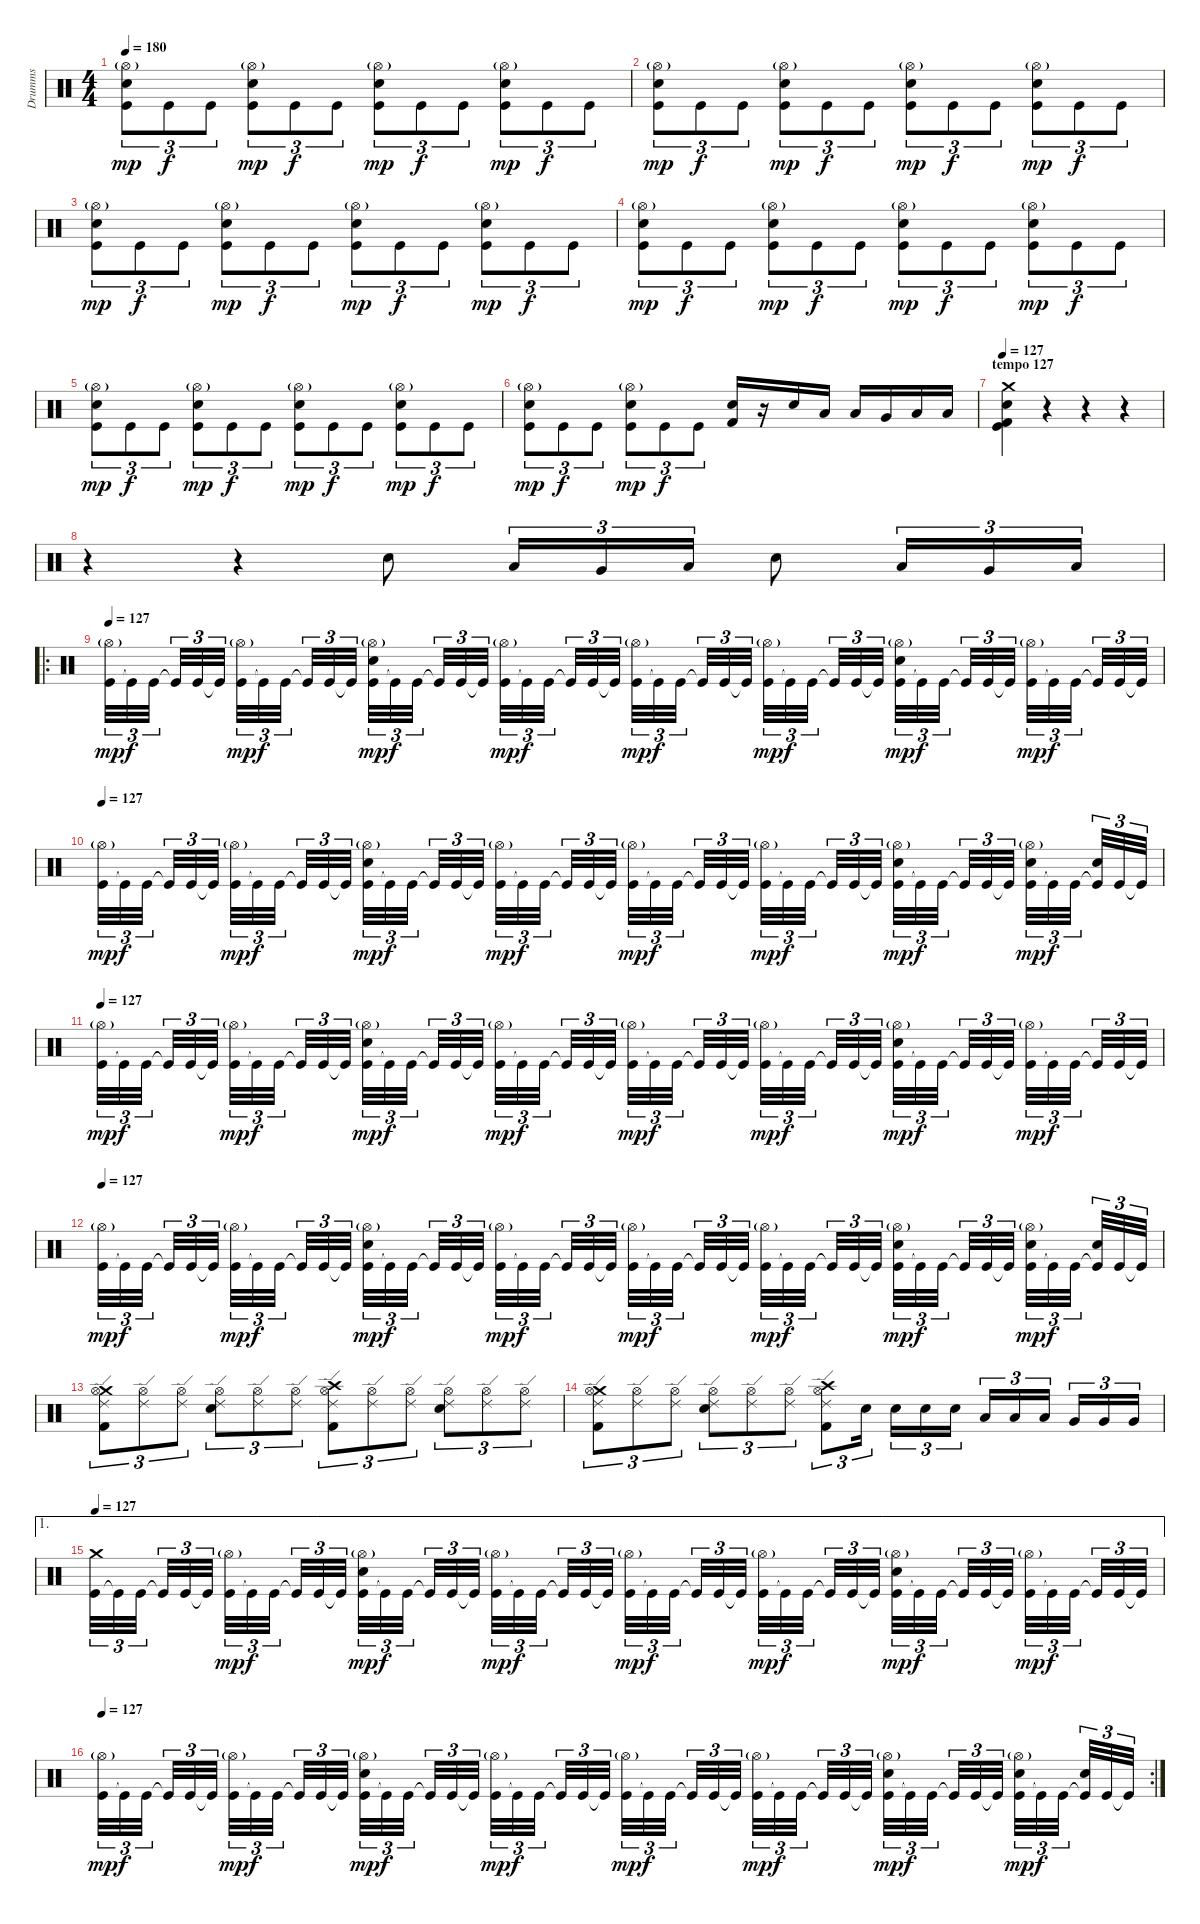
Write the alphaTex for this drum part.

\track ("Drumms" "Drumms") {instrument percussion}
\staff {score}
\articulation defaults
\ts (4 4)
\tempo 180
\clef neutral
\ks c
("Kick (hit)" "Snare (hit) 2" "Hi-Hat (open)"{g}).8{tu (3 2) dy mp} "Kick (hit)".8{tu (3 2) dy f} "Kick (hit)".8{tu (3 2)} ("Kick (hit)" "Snare (hit) 2" "Hi-Hat (open)"{g}).8{tu (3 2) dy mp} "Kick (hit)".8{tu (3 2) dy f} "Kick (hit)".8{tu (3 2)} ("Kick (hit)" "Snare (hit) 2" "Hi-Hat (open)"{g}).8{tu (3 2) dy mp} "Kick (hit)".8{tu (3 2) dy f} "Kick (hit)".8{tu (3 2)} ("Kick (hit)" "Snare (hit) 2" "Hi-Hat (open)"{g}).8{tu (3 2) dy mp} "Kick (hit)".8{tu (3 2) dy f} "Kick (hit)".8{tu (3 2)} |
("Kick (hit)" "Snare (hit) 2" "Hi-Hat (open)"{g}).8{tu (3 2) dy mp} "Kick (hit)".8{tu (3 2) dy f} "Kick (hit)".8{tu (3 2)} ("Kick (hit)" "Snare (hit) 2" "Hi-Hat (open)"{g}).8{tu (3 2) dy mp} "Kick (hit)".8{tu (3 2) dy f} "Kick (hit)".8{tu (3 2)} ("Kick (hit)" "Snare (hit) 2" "Hi-Hat (open)"{g}).8{tu (3 2) dy mp} "Kick (hit)".8{tu (3 2) dy f} "Kick (hit)".8{tu (3 2)} ("Kick (hit)" "Snare (hit) 2" "Hi-Hat (open)"{g}).8{tu (3 2) dy mp} "Kick (hit)".8{tu (3 2) dy f} "Kick (hit)".8{tu (3 2)} |
("Kick (hit)" "Snare (hit) 2" "Hi-Hat (open)"{g}).8{tu (3 2) dy mp} "Kick (hit)".8{tu (3 2) dy f} "Kick (hit)".8{tu (3 2)} ("Kick (hit)" "Snare (hit) 2" "Hi-Hat (open)"{g}).8{tu (3 2) dy mp} "Kick (hit)".8{tu (3 2) dy f} "Kick (hit)".8{tu (3 2)} ("Kick (hit)" "Snare (hit) 2" "Hi-Hat (open)"{g}).8{tu (3 2) dy mp} "Kick (hit)".8{tu (3 2) dy f} "Kick (hit)".8{tu (3 2)} ("Kick (hit)" "Snare (hit) 2" "Hi-Hat (open)"{g}).8{tu (3 2) dy mp} "Kick (hit)".8{tu (3 2) dy f} "Kick (hit)".8{tu (3 2)} |
("Kick (hit)" "Snare (hit) 2" "Hi-Hat (open)"{g}).8{tu (3 2) dy mp} "Kick (hit)".8{tu (3 2) dy f} "Kick (hit)".8{tu (3 2)} ("Kick (hit)" "Snare (hit) 2" "Hi-Hat (open)"{g}).8{tu (3 2) dy mp} "Kick (hit)".8{tu (3 2) dy f} "Kick (hit)".8{tu (3 2)} ("Kick (hit)" "Snare (hit) 2" "Hi-Hat (open)"{g}).8{tu (3 2) dy mp} "Kick (hit)".8{tu (3 2) dy f} "Kick (hit)".8{tu (3 2)} ("Kick (hit)" "Snare (hit) 2" "Hi-Hat (open)"{g}).8{tu (3 2) dy mp} "Kick (hit)".8{tu (3 2) dy f} "Kick (hit)".8{tu (3 2)} |
("Kick (hit)" "Snare (hit) 2" "Hi-Hat (open)"{g}).8{tu (3 2) dy mp} "Kick (hit)".8{tu (3 2) dy f} "Kick (hit)".8{tu (3 2)} ("Kick (hit)" "Snare (hit) 2" "Hi-Hat (open)"{g}).8{tu (3 2) dy mp} "Kick (hit)".8{tu (3 2) dy f} "Kick (hit)".8{tu (3 2)} ("Kick (hit)" "Snare (hit) 2" "Hi-Hat (open)"{g}).8{tu (3 2) dy mp} "Kick (hit)".8{tu (3 2) dy f} "Kick (hit)".8{tu (3 2)} ("Kick (hit)" "Snare (hit) 2" "Hi-Hat (open)"{g}).8{tu (3 2) dy mp} "Kick (hit)".8{tu (3 2) dy f} "Kick (hit)".8{tu (3 2)} |
("Kick (hit)" "Snare (hit) 2" "Hi-Hat (open)"{g}).8{tu (3 2) dy mp} "Kick (hit)".8{tu (3 2) dy f} "Kick (hit)".8{tu (3 2)} ("Kick (hit)" "Snare (hit) 2" "Hi-Hat (open)"{g}).8{tu (3 2) dy mp} "Kick (hit)".8{tu (3 2) dy f} "Kick (hit)".8{tu (3 2)} ("Snare (hit) 2" "Kick (hit) 2").16 r.16 "Snare (hit) 2".16 "Low Tom (hit)".16 "Low Tom (hit)".16 "Very Low Tom (hit)".16 "Low Floor Tom (hit)".16 "Low Floor Tom (hit)".16 |
\section ("" "tempo 127")
\tempo 127
("Kick (hit) 2" "Kick (hit)" "Crash medium (hit)" "Snare (hit) 2").4 r.4 r.4 r.4 |
r.4 r.4 "Snare (hit) 2".8 "Low Tom (hit)".16{tu (3 2)} "Very Low Tom (hit)".16{tu (3 2)} "Low Floor Tom (hit)".16{tu (3 2)} "Snare (hit) 2".8 "Low Tom (hit)".16{tu (3 2)} "Very Low Tom (hit)".16{tu (3 2)} "Low Floor Tom (hit)".16{tu (3 2)} |
\ro
\tempo 127
("Kick (hit)" "Hi-Hat (open)"{g}).32{tu (3 2) dy mp} "Kick (hit)"{t}.32{tu (3 2) dy f} "Kick (hit)".32{tu (3 2)} "Kick (hit)"{t}.32{tu (3 2)} "Kick (hit)".32{tu (3 2)} "Kick (hit)"{t}.32{tu (3 2)} ("Kick (hit)" "Hi-Hat (open)"{g}).32{tu (3 2) dy mp} "Kick (hit)"{t}.32{tu (3 2) dy f} "Kick (hit)".32{tu (3 2)} "Kick (hit)"{t}.32{tu (3 2)} "Kick (hit)".32{tu (3 2)} "Kick (hit)"{t}.32{tu (3 2)} ("Kick (hit)" "Snare (hit) 2" "Hi-Hat (open)"{g}).32{tu (3 2) dy mp} "Kick (hit)"{t}.32{tu (3 2) dy f} "Kick (hit)".32{tu (3 2)} "Kick (hit)"{t}.32{tu (3 2)} "Kick (hit)".32{tu (3 2)} "Kick (hit)"{t}.32{tu (3 2)} ("Kick (hit)" "Hi-Hat (open)"{g}).32{tu (3 2) dy mp} "Kick (hit)"{t}.32{tu (3 2) dy f} "Kick (hit)".32{tu (3 2)} "Kick (hit)"{t}.32{tu (3 2)} "Kick (hit)".32{tu (3 2)} "Kick (hit)"{t}.32{tu (3 2)} ("Kick (hit)" "Hi-Hat (open)"{g}).32{tu (3 2) dy mp} "Kick (hit)"{t}.32{tu (3 2) dy f} "Kick (hit)".32{tu (3 2)} "Kick (hit)"{t}.32{tu (3 2)} "Kick (hit)".32{tu (3 2)} "Kick (hit)"{t}.32{tu (3 2)} ("Kick (hit)" "Hi-Hat (open)"{g}).32{tu (3 2) dy mp} "Kick (hit)"{t}.32{tu (3 2) dy f} "Kick (hit)".32{tu (3 2)} "Kick (hit)"{t}.32{tu (3 2)} "Kick (hit)".32{tu (3 2)} "Kick (hit)"{t}.32{tu (3 2)} ("Kick (hit)" "Hi-Hat (open)"{g} "Snare (hit) 2").32{tu (3 2) dy mp} "Kick (hit)"{t}.32{tu (3 2) dy f} "Kick (hit)".32{tu (3 2)} "Kick (hit)"{t}.32{tu (3 2)} "Kick (hit)".32{tu (3 2)} "Kick (hit)"{t}.32{tu (3 2)} ("Kick (hit)" "Hi-Hat (open)"{g}).32{tu (3 2) dy mp} "Kick (hit)"{t}.32{tu (3 2) dy f} "Kick (hit)".32{tu (3 2)} "Kick (hit)"{t}.32{tu (3 2)} "Kick (hit)".32{tu (3 2)} "Kick (hit)"{t}.32{tu (3 2)} |
\tempo 127
("Kick (hit)" "Hi-Hat (open)"{g}).32{tu (3 2) dy mp} "Kick (hit)"{t}.32{tu (3 2) dy f} "Kick (hit)".32{tu (3 2)} "Kick (hit)"{t}.32{tu (3 2)} "Kick (hit)".32{tu (3 2)} "Kick (hit)"{t}.32{tu (3 2)} ("Kick (hit)" "Hi-Hat (open)"{g}).32{tu (3 2) dy mp} "Kick (hit)"{t}.32{tu (3 2) dy f} "Kick (hit)".32{tu (3 2)} "Kick (hit)"{t}.32{tu (3 2)} "Kick (hit)".32{tu (3 2)} "Kick (hit)"{t}.32{tu (3 2)} ("Kick (hit)" "Snare (hit) 2" "Hi-Hat (open)"{g}).32{tu (3 2) dy mp} "Kick (hit)"{t}.32{tu (3 2) dy f} "Kick (hit)".32{tu (3 2)} "Kick (hit)"{t}.32{tu (3 2)} "Kick (hit)".32{tu (3 2)} "Kick (hit)"{t}.32{tu (3 2)} ("Kick (hit)" "Hi-Hat (open)"{g}).32{tu (3 2) dy mp} "Kick (hit)"{t}.32{tu (3 2) dy f} "Kick (hit)".32{tu (3 2)} "Kick (hit)"{t}.32{tu (3 2)} "Kick (hit)".32{tu (3 2)} "Kick (hit)"{t}.32{tu (3 2)} ("Kick (hit)" "Hi-Hat (open)"{g}).32{tu (3 2) dy mp} "Kick (hit)"{t}.32{tu (3 2) dy f} "Kick (hit)".32{tu (3 2)} "Kick (hit)"{t}.32{tu (3 2)} "Kick (hit)".32{tu (3 2)} "Kick (hit)"{t}.32{tu (3 2)} ("Kick (hit)" "Hi-Hat (open)"{g}).32{tu (3 2) dy mp} "Kick (hit)"{t}.32{tu (3 2) dy f} "Kick (hit)".32{tu (3 2)} "Kick (hit)"{t}.32{tu (3 2)} "Kick (hit)".32{tu (3 2)} "Kick (hit)"{t}.32{tu (3 2)} ("Kick (hit)" "Hi-Hat (open)"{g} "Snare (hit) 2").32{tu (3 2) dy mp} "Kick (hit)"{t}.32{tu (3 2) dy f} "Kick (hit)".32{tu (3 2)} "Kick (hit)"{t}.32{tu (3 2)} "Kick (hit)".32{tu (3 2)} "Kick (hit)"{t}.32{tu (3 2)} ("Kick (hit)" "Hi-Hat (open)"{g} "Snare (hit) 2").32{tu (3 2) dy mp} "Kick (hit)"{t}.32{tu (3 2) dy f} "Kick (hit)".32{tu (3 2)} ("Kick (hit)"{t} "Snare (hit) 2").32{tu (3 2)} "Kick (hit)".32{tu (3 2)} "Kick (hit)"{t}.32{tu (3 2)} |
\tempo 127
("Kick (hit)" "Hi-Hat (open)"{g}).32{tu (3 2) dy mp} "Kick (hit)"{t}.32{tu (3 2) dy f} "Kick (hit)".32{tu (3 2)} "Kick (hit)"{t}.32{tu (3 2)} "Kick (hit)".32{tu (3 2)} "Kick (hit)"{t}.32{tu (3 2)} ("Kick (hit)" "Hi-Hat (open)"{g}).32{tu (3 2) dy mp} "Kick (hit)"{t}.32{tu (3 2) dy f} "Kick (hit)".32{tu (3 2)} "Kick (hit)"{t}.32{tu (3 2)} "Kick (hit)".32{tu (3 2)} "Kick (hit)"{t}.32{tu (3 2)} ("Kick (hit)" "Snare (hit) 2" "Hi-Hat (open)"{g}).32{tu (3 2) dy mp} "Kick (hit)"{t}.32{tu (3 2) dy f} "Kick (hit)".32{tu (3 2)} "Kick (hit)"{t}.32{tu (3 2)} "Kick (hit)".32{tu (3 2)} "Kick (hit)"{t}.32{tu (3 2)} ("Kick (hit)" "Hi-Hat (open)"{g}).32{tu (3 2) dy mp} "Kick (hit)"{t}.32{tu (3 2) dy f} "Kick (hit)".32{tu (3 2)} "Kick (hit)"{t}.32{tu (3 2)} "Kick (hit)".32{tu (3 2)} "Kick (hit)"{t}.32{tu (3 2)} ("Kick (hit)" "Hi-Hat (open)"{g}).32{tu (3 2) dy mp} "Kick (hit)"{t}.32{tu (3 2) dy f} "Kick (hit)".32{tu (3 2)} "Kick (hit)"{t}.32{tu (3 2)} "Kick (hit)".32{tu (3 2)} "Kick (hit)"{t}.32{tu (3 2)} ("Kick (hit)" "Hi-Hat (open)"{g}).32{tu (3 2) dy mp} "Kick (hit)"{t}.32{tu (3 2) dy f} "Kick (hit)".32{tu (3 2)} "Kick (hit)"{t}.32{tu (3 2)} "Kick (hit)".32{tu (3 2)} "Kick (hit)"{t}.32{tu (3 2)} ("Kick (hit)" "Hi-Hat (open)"{g} "Snare (hit) 2").32{tu (3 2) dy mp} "Kick (hit)"{t}.32{tu (3 2) dy f} "Kick (hit)".32{tu (3 2)} "Kick (hit)"{t}.32{tu (3 2)} "Kick (hit)".32{tu (3 2)} "Kick (hit)"{t}.32{tu (3 2)} ("Kick (hit)" "Hi-Hat (open)"{g}).32{tu (3 2) dy mp} "Kick (hit)"{t}.32{tu (3 2) dy f} "Kick (hit)".32{tu (3 2)} "Kick (hit)"{t}.32{tu (3 2)} "Kick (hit)".32{tu (3 2)} "Kick (hit)"{t}.32{tu (3 2)} |
\tempo 127
("Kick (hit)" "Hi-Hat (open)"{g}).32{tu (3 2) dy mp} "Kick (hit)"{t}.32{tu (3 2) dy f} "Kick (hit)".32{tu (3 2)} "Kick (hit)"{t}.32{tu (3 2)} "Kick (hit)".32{tu (3 2)} "Kick (hit)"{t}.32{tu (3 2)} ("Kick (hit)" "Hi-Hat (open)"{g}).32{tu (3 2) dy mp} "Kick (hit)"{t}.32{tu (3 2) dy f} "Kick (hit)".32{tu (3 2)} "Kick (hit)"{t}.32{tu (3 2)} "Kick (hit)".32{tu (3 2)} "Kick (hit)"{t}.32{tu (3 2)} ("Kick (hit)" "Snare (hit) 2" "Hi-Hat (open)"{g}).32{tu (3 2) dy mp} "Kick (hit)"{t}.32{tu (3 2) dy f} "Kick (hit)".32{tu (3 2)} "Kick (hit)"{t}.32{tu (3 2)} "Kick (hit)".32{tu (3 2)} "Kick (hit)"{t}.32{tu (3 2)} ("Kick (hit)" "Hi-Hat (open)"{g}).32{tu (3 2) dy mp} "Kick (hit)"{t}.32{tu (3 2) dy f} "Kick (hit)".32{tu (3 2)} "Kick (hit)"{t}.32{tu (3 2)} "Kick (hit)".32{tu (3 2)} "Kick (hit)"{t}.32{tu (3 2)} ("Kick (hit)" "Hi-Hat (open)"{g}).32{tu (3 2) dy mp} "Kick (hit)"{t}.32{tu (3 2) dy f} "Kick (hit)".32{tu (3 2)} "Kick (hit)"{t}.32{tu (3 2)} "Kick (hit)".32{tu (3 2)} "Kick (hit)"{t}.32{tu (3 2)} ("Kick (hit)" "Hi-Hat (open)"{g}).32{tu (3 2) dy mp} "Kick (hit)"{t}.32{tu (3 2) dy f} "Kick (hit)".32{tu (3 2)} "Kick (hit)"{t}.32{tu (3 2)} "Kick (hit)".32{tu (3 2)} "Kick (hit)"{t}.32{tu (3 2)} ("Kick (hit)" "Hi-Hat (open)"{g} "Snare (hit) 2").32{tu (3 2) dy mp} "Kick (hit)"{t}.32{tu (3 2) dy f} "Kick (hit)".32{tu (3 2)} "Kick (hit)"{t}.32{tu (3 2)} "Kick (hit)".32{tu (3 2)} "Kick (hit)"{t}.32{tu (3 2)} ("Kick (hit)" "Hi-Hat (open)"{g} "Snare (hit) 2").32{tu (3 2) dy mp} "Kick (hit)"{t}.32{tu (3 2) dy f} "Kick (hit)".32{tu (3 2)} ("Kick (hit)"{t} "Snare (hit) 2").32{tu (3 2)} "Kick (hit)".32{tu (3 2)} "Kick (hit)"{t}.32{tu (3 2)} |
("Kick (hit) 2" "Ride (edge) 2" "Crash medium (hit)" "Hi-Hat (open)").8{tu (3 2)} ("Ride (edge) 2" "Hi-Hat (open)").8{tu (3 2)} ("Ride (edge) 2" "Hi-Hat (open)").8{tu (3 2)} ("Snare (hit) 2" "Ride (edge) 2" "Hi-Hat (open)").8{tu (3 2)} ("Ride (edge) 2" "Hi-Hat (open)").8{tu (3 2)} ("Ride (edge) 2" "Hi-Hat (open)").8{tu (3 2)} ("Kick (hit) 2" "Ride (edge) 2" "Crash high (hit)" "Hi-Hat (open)").8{tu (3 2)} ("Ride (edge) 2" "Hi-Hat (open)").8{tu (3 2)} ("Ride (edge) 2" "Hi-Hat (open)").8{tu (3 2)} ("Snare (hit) 2" "Ride (edge) 2" "Hi-Hat (open)").8{tu (3 2)} ("Ride (edge) 2" "Hi-Hat (open)").8{tu (3 2)} ("Ride (edge) 2" "Hi-Hat (open)").8{tu (3 2)} |
("Kick (hit) 2" "Ride (edge) 2" "Crash medium (hit)" "Hi-Hat (open)").8{tu (3 2)} ("Ride (edge) 2" "Hi-Hat (open)").8{tu (3 2)} ("Ride (edge) 2" "Hi-Hat (open)").8{tu (3 2)} ("Snare (hit) 2" "Ride (edge) 2" "Hi-Hat (open)").8{tu (3 2)} ("Ride (edge) 2" "Hi-Hat (open)").8{tu (3 2)} ("Ride (edge) 2" "Hi-Hat (open)").8{tu (3 2)} ("Kick (hit) 2" "Ride (edge) 2" "Crash high (hit)" "Hi-Hat (open)").8{tu (3 2)} "Snare (hit) 2".16{tu (3 2)} "Snare (hit) 2".16{tu (3 2)} "Snare (hit) 2".16{tu (3 2)} "Snare (hit) 2".16{tu (3 2)} "Low Tom (hit)".16{tu (3 2)} "Low Tom (hit)".16{tu (3 2)} "Low Tom (hit)".16{tu (3 2)} "Very Low Tom (hit)".16{tu (3 2)} "Very Low Tom (hit)".16{tu (3 2)} "Very Low Tom (hit)".16{tu (3 2)} |
\ae 1
\tempo 127
("Kick (hit)" "Crash medium (hit)").32{tu (3 2)} "Kick (hit)"{t}.32{tu (3 2)} "Kick (hit)".32{tu (3 2)} "Kick (hit)"{t}.32{tu (3 2)} "Kick (hit)".32{tu (3 2)} "Kick (hit)"{t}.32{tu (3 2)} ("Kick (hit)" "Hi-Hat (open)"{g}).32{tu (3 2) dy mp} "Kick (hit)"{t}.32{tu (3 2) dy f} "Kick (hit)".32{tu (3 2)} "Kick (hit)"{t}.32{tu (3 2)} "Kick (hit)".32{tu (3 2)} "Kick (hit)"{t}.32{tu (3 2)} ("Kick (hit)" "Snare (hit) 2" "Hi-Hat (open)"{g}).32{tu (3 2) dy mp} "Kick (hit)"{t}.32{tu (3 2) dy f} "Kick (hit)".32{tu (3 2)} "Kick (hit)"{t}.32{tu (3 2)} "Kick (hit)".32{tu (3 2)} "Kick (hit)"{t}.32{tu (3 2)} ("Kick (hit)" "Hi-Hat (open)"{g}).32{tu (3 2) dy mp} "Kick (hit)"{t}.32{tu (3 2) dy f} "Kick (hit)".32{tu (3 2)} "Kick (hit)"{t}.32{tu (3 2)} "Kick (hit)".32{tu (3 2)} "Kick (hit)"{t}.32{tu (3 2)} ("Kick (hit)" "Hi-Hat (open)"{g}).32{tu (3 2) dy mp} "Kick (hit)"{t}.32{tu (3 2) dy f} "Kick (hit)".32{tu (3 2)} "Kick (hit)"{t}.32{tu (3 2)} "Kick (hit)".32{tu (3 2)} "Kick (hit)"{t}.32{tu (3 2)} ("Kick (hit)" "Hi-Hat (open)"{g}).32{tu (3 2) dy mp} "Kick (hit)"{t}.32{tu (3 2) dy f} "Kick (hit)".32{tu (3 2)} "Kick (hit)"{t}.32{tu (3 2)} "Kick (hit)".32{tu (3 2)} "Kick (hit)"{t}.32{tu (3 2)} ("Kick (hit)" "Hi-Hat (open)"{g} "Snare (hit) 2").32{tu (3 2) dy mp} "Kick (hit)"{t}.32{tu (3 2) dy f} "Kick (hit)".32{tu (3 2)} "Kick (hit)"{t}.32{tu (3 2)} "Kick (hit)".32{tu (3 2)} "Kick (hit)"{t}.32{tu (3 2)} ("Kick (hit)" "Hi-Hat (open)"{g}).32{tu (3 2) dy mp} "Kick (hit)"{t}.32{tu (3 2) dy f} "Kick (hit)".32{tu (3 2)} "Kick (hit)"{t}.32{tu (3 2)} "Kick (hit)".32{tu (3 2)} "Kick (hit)"{t}.32{tu (3 2)} |
\rc 2
\tempo 127
("Kick (hit)" "Hi-Hat (open)"{g}).32{tu (3 2) dy mp} "Kick (hit)"{t}.32{tu (3 2) dy f} "Kick (hit)".32{tu (3 2)} "Kick (hit)"{t}.32{tu (3 2)} "Kick (hit)".32{tu (3 2)} "Kick (hit)"{t}.32{tu (3 2)} ("Kick (hit)" "Hi-Hat (open)"{g}).32{tu (3 2) dy mp} "Kick (hit)"{t}.32{tu (3 2) dy f} "Kick (hit)".32{tu (3 2)} "Kick (hit)"{t}.32{tu (3 2)} "Kick (hit)".32{tu (3 2)} "Kick (hit)"{t}.32{tu (3 2)} ("Kick (hit)" "Snare (hit) 2" "Hi-Hat (open)"{g}).32{tu (3 2) dy mp} "Kick (hit)"{t}.32{tu (3 2) dy f} "Kick (hit)".32{tu (3 2)} "Kick (hit)"{t}.32{tu (3 2)} "Kick (hit)".32{tu (3 2)} "Kick (hit)"{t}.32{tu (3 2)} ("Kick (hit)" "Hi-Hat (open)"{g}).32{tu (3 2) dy mp} "Kick (hit)"{t}.32{tu (3 2) dy f} "Kick (hit)".32{tu (3 2)} "Kick (hit)"{t}.32{tu (3 2)} "Kick (hit)".32{tu (3 2)} "Kick (hit)"{t}.32{tu (3 2)} ("Kick (hit)" "Hi-Hat (open)"{g}).32{tu (3 2) dy mp} "Kick (hit)"{t}.32{tu (3 2) dy f} "Kick (hit)".32{tu (3 2)} "Kick (hit)"{t}.32{tu (3 2)} "Kick (hit)".32{tu (3 2)} "Kick (hit)"{t}.32{tu (3 2)} ("Kick (hit)" "Hi-Hat (open)"{g}).32{tu (3 2) dy mp} "Kick (hit)"{t}.32{tu (3 2) dy f} "Kick (hit)".32{tu (3 2)} "Kick (hit)"{t}.32{tu (3 2)} "Kick (hit)".32{tu (3 2)} "Kick (hit)"{t}.32{tu (3 2)} ("Kick (hit)" "Hi-Hat (open)"{g} "Snare (hit) 2").32{tu (3 2) dy mp} "Kick (hit)"{t}.32{tu (3 2) dy f} "Kick (hit)".32{tu (3 2)} "Kick (hit)"{t}.32{tu (3 2)} "Kick (hit)".32{tu (3 2)} "Kick (hit)"{t}.32{tu (3 2)} ("Kick (hit)" "Hi-Hat (open)"{g} "Snare (hit) 2").32{tu (3 2) dy mp} "Kick (hit)"{t}.32{tu (3 2) dy f} "Kick (hit)".32{tu (3 2)} ("Kick (hit)"{t} "Snare (hit) 2").32{tu (3 2)} "Kick (hit)".32{tu (3 2)} "Kick (hit)"{t}.32{tu (3 2)}
